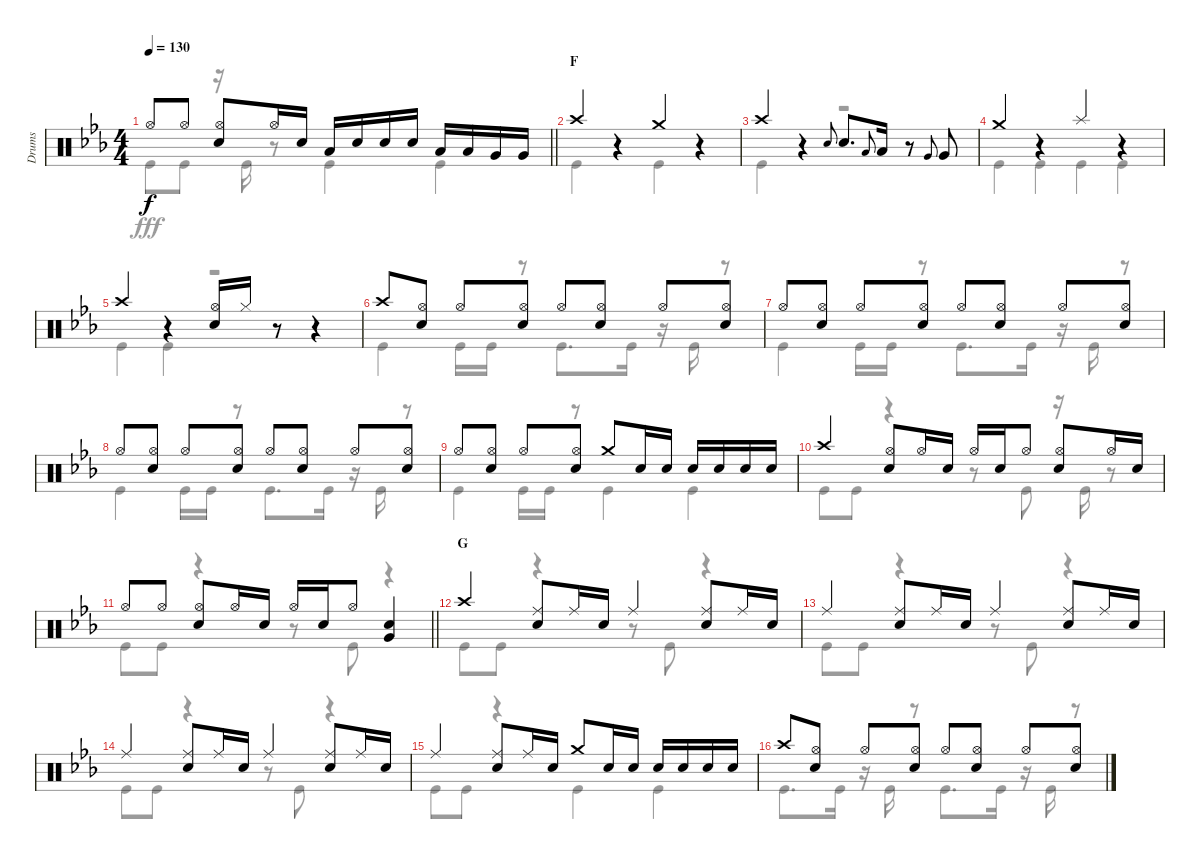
\track ("Drums" "Drums") {instrument percussion}
\staff {score}
\articulation defaults
\voice
\ts (4 4)
\tempo 130
\clef neutral
\barLineRight lightlight
\ks eb "Hi-Hat (open)".8{dy f} "Hi-Hat (open)".8
("Hi-Hat (open)" "Snare (hit) 2").8 "Hi-Hat (open)".16 "Snare (hit) 2".16 "Low Tom (hit)".16 "Snare (hit) 2".16 "Snare (hit) 2".16 "Snare (hit) 2".16 "Low Tom (hit)".16 "Low Tom (hit)".16 "Very Low Tom (hit)".16 "Very Low Tom (hit)".16 |
\section ("" "F")
"Crash high (hit)".4 r.4 "Crash medium (hit)".4 r.4 |
"Crash high (hit)".4 r.4 "Snare (hit) 2".8{gr onbeat} "Snare (hit) 2".8{d} "Low Tom (hit)".8{gr onbeat} "Low Tom (hit)".16 r.8 "Very Low Tom (hit)".8{gr onbeat} "Very Low Tom (hit)".8 |
"Crash medium (hit)".4 r.4 "Splash (hit)".4 r.4 |
"Crash high (hit)".4 r.4 ("Hi-Hat (open)" "Snare (hit) 2").16 "Hi-Hat (closed)".16 r.8 r.4 |
"Crash high (hit)".8 ("Hi-Hat (open)" "Snare (hit) 2").8 "Hi-Hat (open)".8 ("Hi-Hat (open)" "Snare (hit) 2").8 "Hi-Hat (open)".8 ("Hi-Hat (open)" "Snare (hit) 2").8 "Hi-Hat (open)".8 ("Hi-Hat (open)" "Snare (hit) 2").8 |
"Hi-Hat (open)".8 ("Hi-Hat (open)" "Snare (hit) 2").8 "Hi-Hat (open)".8 ("Hi-Hat (open)" "Snare (hit) 2").8 "Hi-Hat (open)".8 ("Hi-Hat (open)" "Snare (hit) 2").8 "Hi-Hat (open)".8 ("Hi-Hat (open)" "Snare (hit) 2").8 |
"Hi-Hat (open)".8 ("Hi-Hat (open)" "Snare (hit) 2").8 "Hi-Hat (open)".8 ("Hi-Hat (open)" "Snare (hit) 2").8 "Hi-Hat (open)".8 ("Hi-Hat (open)" "Snare (hit) 2").8 "Hi-Hat (open)".8 ("Hi-Hat (open)" "Snare (hit) 2").8 |
"Hi-Hat (open)".8 ("Hi-Hat (open)" "Snare (hit) 2").8 "Hi-Hat (open)".8 ("Hi-Hat (open)" "Snare (hit) 2").8 "Crash medium (hit)".8 "Snare (hit) 2".16 "Snare (hit) 2".16 "Snare (hit) 2".16 "Snare (hit) 2".16 "Snare (hit) 2".16 "Snare (hit) 2".16 |
"Crash high (hit)".4 ("Hi-Hat (open)" "Snare (hit) 2").8 "Hi-Hat (open)".16 "Snare (hit) 2".16 "Hi-Hat (open)".16 "Snare (hit) 2".16 "Hi-Hat (open)".8 ("Hi-Hat (open)" "Snare (hit) 2").8 "Hi-Hat (open)".16 "Snare (hit) 2".16 |
\barLineRight lightlight "Hi-Hat (open)".8 "Hi-Hat (open)".8
("Hi-Hat (open)" "Snare (hit) 2").8 "Hi-Hat (open)".16 "Snare (hit) 2".16 "Hi-Hat (open)".16 "Snare (hit) 2".16 "Hi-Hat (open)".8 ("Snare (hit) 2" "Very Low Tom (hit)").4 |
\section ("" "G")
"Crash high (hit)".4 ("Ride (middle)" "Snare (hit) 2").8 "Ride (middle)".16 "Snare (hit) 2".16 "Ride (middle)".4 ("Ride (middle)" "Snare (hit) 2").8 "Ride (middle)".16 "Snare (hit) 2".16 |
"Ride (middle)".4 ("Ride (middle)" "Snare (hit) 2").8 "Ride (middle)".16 "Snare (hit) 2".16 "Ride (middle)".4 ("Ride (middle)" "Snare (hit) 2").8 "Ride (middle)".16 "Snare (hit) 2".16 |
"Ride (middle)".4 ("Ride (middle)" "Snare (hit) 2").8 "Ride (middle)".16 "Snare (hit) 2".16 "Ride (middle)".4 ("Ride (middle)" "Snare (hit) 2").8 "Ride (middle)".16 "Snare (hit) 2".16 |
"Ride (middle)".4 ("Ride (middle)" "Snare (hit) 2").8 "Ride (middle)".16 "Snare (hit) 2".16 "Crash medium (hit)".8 "Snare (hit) 2".16 "Snare (hit) 2".16 "Snare (hit) 2".16 "Snare (hit) 2".16 "Snare (hit) 2".16 "Snare (hit) 2".16 |
"Crash high (hit)".8 ("Hi-Hat (open)" "Snare (hit) 2").8 "Hi-Hat (open)".8 ("Hi-Hat (open)" "Snare (hit) 2").8 "Hi-Hat (open)".8 ("Hi-Hat (open)" "Snare (hit) 2").8 "Hi-Hat (open)".8 ("Hi-Hat (open)" "Snare (hit) 2").8
\voice
\clef neutral
\ottava regular
\simile none
\barLineRight lightlight
\ks eb "Kick (hit)".8{dy fff} "Kick (hit)".8
r.16 "Kick (hit)".16 r.8 "Kick (hit)".4 "Kick (hit)".4 |
"Kick (hit)".4 r.4 "Kick (hit)".4 r.4 |
"Kick (hit)".4 r.4 r.2 |
"Kick (hit)".4 "Kick (hit)".4 "Kick (hit)".4 "Kick (hit)".4 |
"Kick (hit)".4 "Kick (hit)".4 r.2 |
"Kick (hit)".4 "Kick (hit)".16 "Kick (hit)".16 r.8 "Kick (hit)".8{d} "Kick (hit)".16 r.16 "Kick (hit)".16 r.8 |
"Kick (hit)".4 "Kick (hit)".16 "Kick (hit)".16 r.8 "Kick (hit)".8{d} "Kick (hit)".16 r.16 "Kick (hit)".16 r.8 |
"Kick (hit)".4 "Kick (hit)".16 "Kick (hit)".16 r.8 "Kick (hit)".8{d} "Kick (hit)".16 r.16 "Kick (hit)".16 r.8 |
"Kick (hit)".4 "Kick (hit)".16 "Kick (hit)".16 r.8 "Kick (hit)".4 "Kick (hit)".4 |
"Kick (hit)".8 "Kick (hit)".8 r.4 r.8 "Kick (hit)".8 r.16 "Kick (hit)".16 r.8 |
\barLineRight lightlight "Kick (hit)".8 "Kick (hit)".8
r.4 r.8 "Kick (hit)".8 r.4 |
"Kick (hit)".8 "Kick (hit)".8 r.4 r.8 "Kick (hit)".8 r.4 |
"Kick (hit)".8 "Kick (hit)".8 r.4 r.8 "Kick (hit)".8 r.4 |
"Kick (hit)".8 "Kick (hit)".8 r.4 r.8 "Kick (hit)".8 r.4 |
"Kick (hit)".8 "Kick (hit)".8 r.4 "Kick (hit)".4 "Kick (hit)".4 |
"Kick (hit)".8{d} "Kick (hit)".16 r.16 "Kick (hit)".16 r.8 "Kick (hit)".8{d} "Kick (hit)".16 r.16 "Kick (hit)".16 r.8
